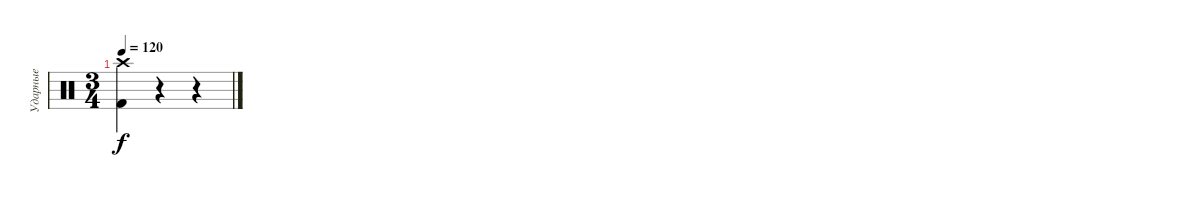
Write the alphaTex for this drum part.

\track ("Ударные" "Ударные") {instrument percussion}
\staff {score}
\articulation defaults
\ts (3 4)
\tempo 120
\clef neutral
\ks c
("Crash high (hit)" "Kick (hit) 2").4{dy f} r.4 r.4
